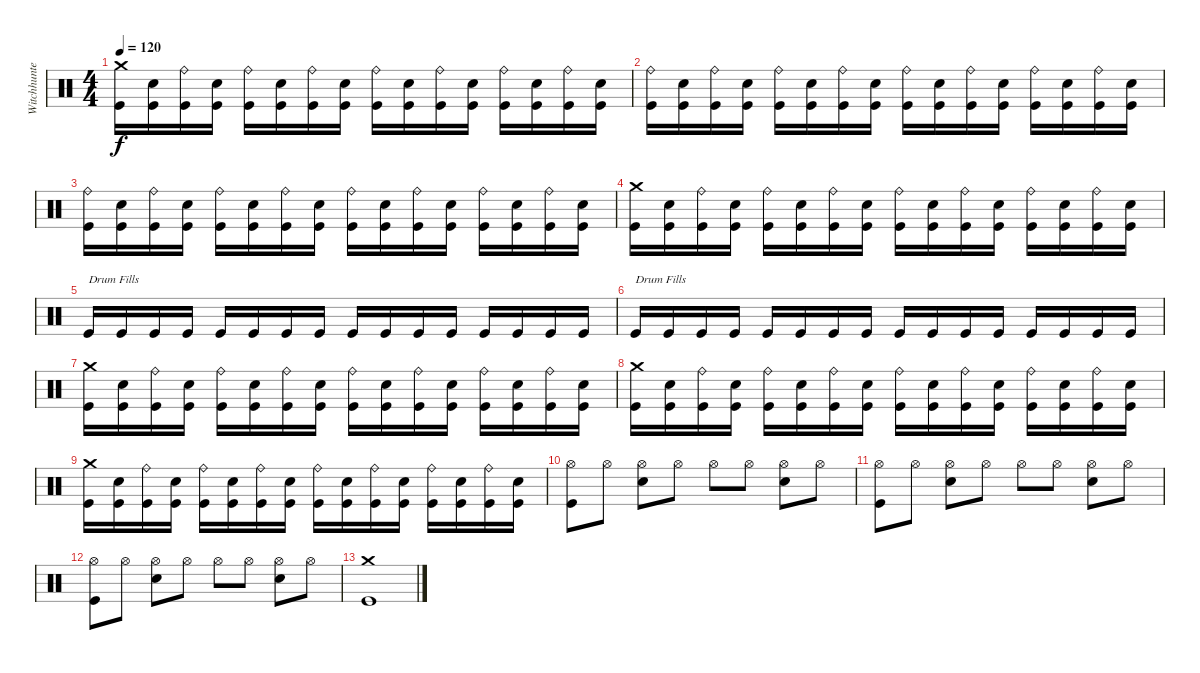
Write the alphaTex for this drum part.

\track ("Witchhunter" "Witchhunte") {instrument percussion}
\staff {score}
\articulation defaults
\ts (4 4)
\tempo 120
\clef neutral
\ks c
("Crash medium (hit)" "Kick (hit)").16{dy f} ("Snare (hit) 2" "Kick (hit)").16 ("Ride (bell)" "Kick (hit)").16 ("Snare (hit) 2" "Kick (hit)").16 ("Ride (bell)" "Kick (hit)").16 ("Snare (hit) 2" "Kick (hit)").16 ("Ride (bell)" "Kick (hit)").16 ("Snare (hit) 2" "Kick (hit)").16 ("Ride (bell)" "Kick (hit)").16 ("Snare (hit) 2" "Kick (hit)").16 ("Ride (bell)" "Kick (hit)").16 ("Snare (hit) 2" "Kick (hit)").16 ("Ride (bell)" "Kick (hit)").16 ("Snare (hit) 2" "Kick (hit)").16 ("Ride (bell)" "Kick (hit)").16 ("Snare (hit) 2" "Kick (hit)").16 |
("Ride (bell)" "Kick (hit)").16 ("Snare (hit) 2" "Kick (hit)").16 ("Ride (bell)" "Kick (hit)").16 ("Snare (hit) 2" "Kick (hit)").16 ("Ride (bell)" "Kick (hit)").16 ("Snare (hit) 2" "Kick (hit)").16 ("Ride (bell)" "Kick (hit)").16 ("Snare (hit) 2" "Kick (hit)").16 ("Ride (bell)" "Kick (hit)").16 ("Snare (hit) 2" "Kick (hit)").16 ("Ride (bell)" "Kick (hit)").16 ("Snare (hit) 2" "Kick (hit)").16 ("Ride (bell)" "Kick (hit)").16 ("Snare (hit) 2" "Kick (hit)").16 ("Ride (bell)" "Kick (hit)").16 ("Snare (hit) 2" "Kick (hit)").16 |
("Ride (bell)" "Kick (hit)").16 ("Snare (hit) 2" "Kick (hit)").16 ("Ride (bell)" "Kick (hit)").16 ("Snare (hit) 2" "Kick (hit)").16 ("Ride (bell)" "Kick (hit)").16 ("Snare (hit) 2" "Kick (hit)").16 ("Ride (bell)" "Kick (hit)").16 ("Snare (hit) 2" "Kick (hit)").16 ("Ride (bell)" "Kick (hit)").16 ("Snare (hit) 2" "Kick (hit)").16 ("Ride (bell)" "Kick (hit)").16 ("Snare (hit) 2" "Kick (hit)").16 ("Ride (bell)" "Kick (hit)").16 ("Snare (hit) 2" "Kick (hit)").16 ("Ride (bell)" "Kick (hit)").16 ("Snare (hit) 2" "Kick (hit)").16 |
("Crash medium (hit)" "Kick (hit)").16 ("Snare (hit) 2" "Kick (hit)").16 ("Ride (bell)" "Kick (hit)").16 ("Snare (hit) 2" "Kick (hit)").16 ("Ride (bell)" "Kick (hit)").16 ("Snare (hit) 2" "Kick (hit)").16 ("Ride (bell)" "Kick (hit)").16 ("Snare (hit) 2" "Kick (hit)").16 ("Ride (bell)" "Kick (hit)").16 ("Snare (hit) 2" "Kick (hit)").16 ("Ride (bell)" "Kick (hit)").16 ("Snare (hit) 2" "Kick (hit)").16 ("Ride (bell)" "Kick (hit)").16 ("Snare (hit) 2" "Kick (hit)").16 ("Ride (bell)" "Kick (hit)").16 ("Snare (hit) 2" "Kick (hit)").16 |
"Kick (hit)".16{txt "Drum Fills"} "Kick (hit)".16 "Kick (hit)".16 "Kick (hit)".16 "Kick (hit)".16 "Kick (hit)".16 "Kick (hit)".16 "Kick (hit)".16 "Kick (hit)".16 "Kick (hit)".16 "Kick (hit)".16 "Kick (hit)".16 "Kick (hit)".16 "Kick (hit)".16 "Kick (hit)".16 "Kick (hit)".16 |
"Kick (hit)".16{txt "Drum Fills"} "Kick (hit)".16 "Kick (hit)".16 "Kick (hit)".16 "Kick (hit)".16 "Kick (hit)".16 "Kick (hit)".16 "Kick (hit)".16 "Kick (hit)".16 "Kick (hit)".16 "Kick (hit)".16 "Kick (hit)".16 "Kick (hit)".16 "Kick (hit)".16 "Kick (hit)".16 "Kick (hit)".16 |
("Crash medium (hit)" "Kick (hit)").16 ("Snare (hit) 2" "Kick (hit)").16 ("Ride (bell)" "Kick (hit)").16 ("Snare (hit) 2" "Kick (hit)").16 ("Ride (bell)" "Kick (hit)").16 ("Snare (hit) 2" "Kick (hit)").16 ("Ride (bell)" "Kick (hit)").16 ("Snare (hit) 2" "Kick (hit)").16 ("Ride (bell)" "Kick (hit)").16 ("Snare (hit) 2" "Kick (hit)").16 ("Ride (bell)" "Kick (hit)").16 ("Snare (hit) 2" "Kick (hit)").16 ("Ride (bell)" "Kick (hit)").16 ("Snare (hit) 2" "Kick (hit)").16 ("Ride (bell)" "Kick (hit)").16 ("Snare (hit) 2" "Kick (hit)").16 |
("Crash medium (hit)" "Kick (hit)").16 ("Snare (hit) 2" "Kick (hit)").16 ("Ride (bell)" "Kick (hit)").16 ("Snare (hit) 2" "Kick (hit)").16 ("Ride (bell)" "Kick (hit)").16 ("Snare (hit) 2" "Kick (hit)").16 ("Ride (bell)" "Kick (hit)").16 ("Snare (hit) 2" "Kick (hit)").16 ("Ride (bell)" "Kick (hit)").16 ("Snare (hit) 2" "Kick (hit)").16 ("Ride (bell)" "Kick (hit)").16 ("Snare (hit) 2" "Kick (hit)").16 ("Ride (bell)" "Kick (hit)").16 ("Snare (hit) 2" "Kick (hit)").16 ("Ride (bell)" "Kick (hit)").16 ("Snare (hit) 2" "Kick (hit)").16 |
("Crash medium (hit)" "Kick (hit)").16 ("Snare (hit) 2" "Kick (hit)").16 ("Ride (bell)" "Kick (hit)").16 ("Snare (hit) 2" "Kick (hit)").16 ("Ride (bell)" "Kick (hit)").16 ("Snare (hit) 2" "Kick (hit)").16 ("Ride (bell)" "Kick (hit)").16 ("Snare (hit) 2" "Kick (hit)").16 ("Ride (bell)" "Kick (hit)").16 ("Snare (hit) 2" "Kick (hit)").16 ("Ride (bell)" "Kick (hit)").16 ("Snare (hit) 2" "Kick (hit)").16 ("Ride (bell)" "Kick (hit)").16 ("Snare (hit) 2" "Kick (hit)").16 ("Ride (bell)" "Kick (hit)").16 ("Snare (hit) 2" "Kick (hit)").16 |
("Hi-Hat (open)" "Kick (hit)").8 "Hi-Hat (open)".8 ("Hi-Hat (open)" "Snare (hit) 2").8 "Hi-Hat (open)".8 "Hi-Hat (open)".8 "Hi-Hat (open)".8 ("Hi-Hat (open)" "Snare (hit) 2").8 "Hi-Hat (open)".8 |
("Hi-Hat (open)" "Kick (hit)").8 "Hi-Hat (open)".8 ("Hi-Hat (open)" "Snare (hit) 2").8 "Hi-Hat (open)".8 "Hi-Hat (open)".8 "Hi-Hat (open)".8 ("Hi-Hat (open)" "Snare (hit) 2").8 "Hi-Hat (open)".8 |
("Hi-Hat (open)" "Kick (hit)").8 "Hi-Hat (open)".8 ("Hi-Hat (open)" "Snare (hit) 2").8 "Hi-Hat (open)".8 "Hi-Hat (open)".8 "Hi-Hat (open)".8 ("Hi-Hat (open)" "Snare (hit) 2").8 "Hi-Hat (open)".8 |
("Crash medium (hit)" "Kick (hit)").1
